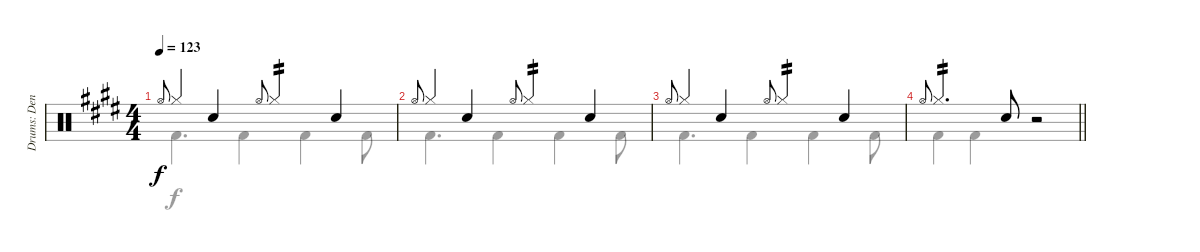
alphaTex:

\track ("Drums: Denny" "Drums: Den") {instrument percussion}
\staff {score}
\articulation defaults
\voice
\ts (4 4)
\tempo 123
\clef neutral
\ks e "Hi-Hat (open)".8{gr onbeat dy f} "Hi-Hat (closed)".4 "Snare (hit) 2".4 "Hi-Hat (open)".8{gr onbeat} "Hi-Hat (closed)".4{tp 2} "Snare (hit) 2".4
|
"Hi-Hat (open)".8{gr onbeat} "Hi-Hat (closed)".4 "Snare (hit) 2".4 "Hi-Hat (open)".8{gr onbeat} "Hi-Hat (closed)".4{tp 2} "Snare (hit) 2".4 |
"Hi-Hat (open)".8{gr onbeat} "Hi-Hat (closed)".4 "Snare (hit) 2".4 "Hi-Hat (open)".8{gr onbeat} "Hi-Hat (closed)".4{tp 2} "Snare (hit) 2".4 |
\barLineRight lightlight "Hi-Hat (open)".8{gr onbeat} "Hi-Hat (closed)".4{d tp 2} "Snare (hit) 2".8
r.2
\voice
\clef neutral
\ottava regular
\simile none
\ks e "Kick (hit) 2".4{d dy f} "Kick (hit) 2".4 "Kick (hit) 2".4 "Kick (hit) 2".8
|
"Kick (hit) 2".4{d} "Kick (hit) 2".4 "Kick (hit) 2".4 "Kick (hit) 2".8 |
"Kick (hit) 2".4{d} "Kick (hit) 2".4 "Kick (hit) 2".4 "Kick (hit) 2".8 |
\barLineRight lightlight "Kick (hit) 2".4 "Kick (hit) 2".4
r.2
